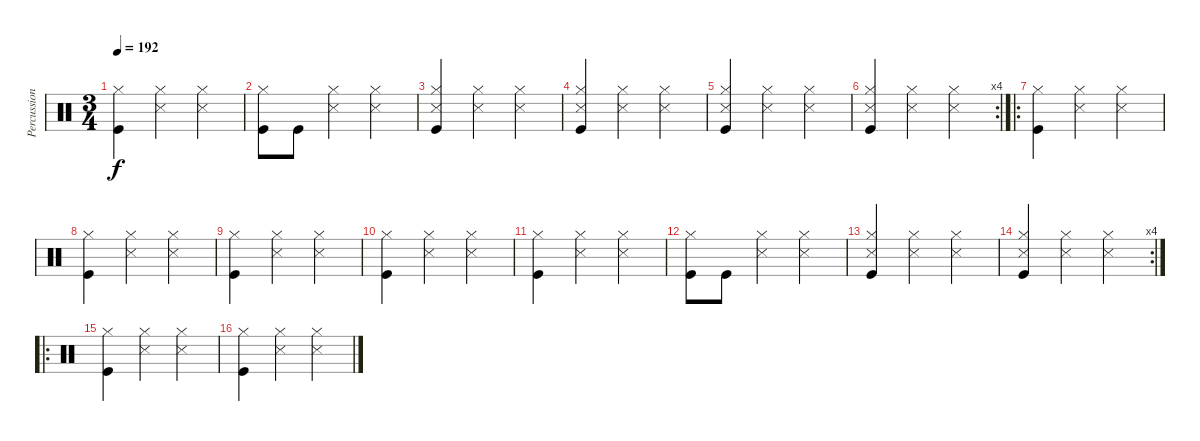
\track ("Percussion" "Percussion") {instrument percussion}
\staff {score}
\articulation defaults
\ts (3 4)
\tempo 192
\clef neutral
\ks c
("Kick (hit)" "Hi-Hat (closed)").4{dy f} ("Hi-Hat (closed)" "Snare (side stick) 3").4 ("Hi-Hat (closed)" "Snare (side stick) 3").4 |
("Kick (hit)" "Hi-Hat (closed)").8 "Kick (hit)".8 ("Hi-Hat (closed)" "Snare (side stick) 3").4 ("Hi-Hat (closed)" "Snare (side stick) 3").4 |
("Hi-Hat (closed)" "Snare (side stick) 3" "Kick (hit)").4 ("Hi-Hat (closed)" "Snare (side stick) 3").4 ("Hi-Hat (closed)" "Snare (side stick) 3").4 |
("Hi-Hat (closed)" "Snare (side stick) 3" "Kick (hit)").4 ("Hi-Hat (closed)" "Snare (side stick) 3").4 ("Hi-Hat (closed)" "Snare (side stick) 3").4 |
("Hi-Hat (closed)" "Snare (side stick) 3" "Kick (hit)").4 ("Hi-Hat (closed)" "Snare (side stick) 3").4 ("Hi-Hat (closed)" "Snare (side stick) 3").4 |
\rc 4
("Hi-Hat (closed)" "Snare (side stick) 3" "Kick (hit)").4 ("Hi-Hat (closed)" "Snare (side stick) 3").4 ("Hi-Hat (closed)" "Snare (side stick) 3").4 |
\ro
("Kick (hit)" "Hi-Hat (closed)").4 ("Hi-Hat (closed)" "Snare (side stick) 3").4 ("Hi-Hat (closed)" "Snare (side stick) 3").4 |
("Kick (hit)" "Hi-Hat (closed)").4 ("Hi-Hat (closed)" "Snare (side stick) 3").4 ("Hi-Hat (closed)" "Snare (side stick) 3").4 |
("Kick (hit)" "Hi-Hat (closed)").4 ("Hi-Hat (closed)" "Snare (side stick) 3").4 ("Hi-Hat (closed)" "Snare (side stick) 3").4 |
("Kick (hit)" "Hi-Hat (closed)").4 ("Hi-Hat (closed)" "Snare (side stick) 3").4 ("Hi-Hat (closed)" "Snare (side stick) 3").4 |
("Kick (hit)" "Hi-Hat (closed)").4 ("Hi-Hat (closed)" "Snare (side stick) 3").4 ("Hi-Hat (closed)" "Snare (side stick) 3").4 |
("Kick (hit)" "Hi-Hat (closed)").8 "Kick (hit)".8 ("Hi-Hat (closed)" "Snare (side stick) 3").4 ("Hi-Hat (closed)" "Snare (side stick) 3").4 |
("Hi-Hat (closed)" "Snare (side stick) 3" "Kick (hit)").4 ("Hi-Hat (closed)" "Snare (side stick) 3").4 ("Hi-Hat (closed)" "Snare (side stick) 3").4 |
\rc 4
("Hi-Hat (closed)" "Snare (side stick) 3" "Kick (hit)").4 ("Hi-Hat (closed)" "Snare (side stick) 3").4 ("Hi-Hat (closed)" "Snare (side stick) 3").4 |
\ro
("Kick (hit)" "Hi-Hat (closed)").4 ("Hi-Hat (closed)" "Snare (side stick) 3").4 ("Hi-Hat (closed)" "Snare (side stick) 3").4 |
("Kick (hit)" "Hi-Hat (closed)").4 ("Hi-Hat (closed)" "Snare (side stick) 3").4 ("Hi-Hat (closed)" "Snare (side stick) 3").4
